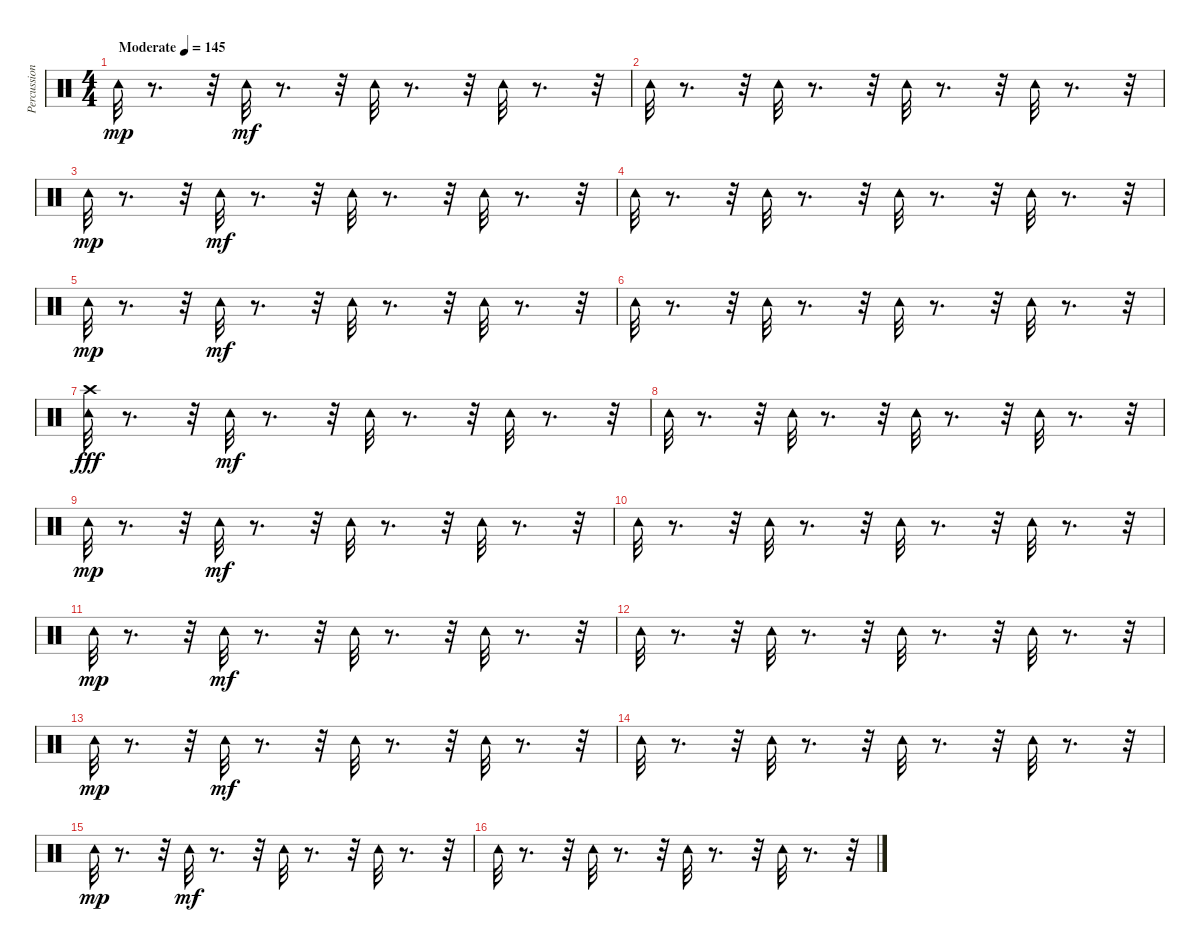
\track ("Percussion" "Percussion") {instrument percussion}
\staff {score}
\articulation defaults
\ts (4 4)
\tempo (145 "Moderate")
\clef neutral
\ks c "Tambourine (hit)".32{dy mp}
r.8{d} r.32 "Tambourine (hit)".32{dy mf} r.8{d} r.32 "Tambourine (hit)".32 r.8{d} r.32 "Tambourine (hit)".32 r.8{d} r.32 |
"Tambourine (hit)".32 r.8{d} r.32 "Tambourine (hit)".32 r.8{d} r.32 "Tambourine (hit)".32 r.8{d} r.32 "Tambourine (hit)".32 r.8{d} r.32 |
"Tambourine (hit)".32{dy mp} r.8{d} r.32 "Tambourine (hit)".32{dy mf} r.8{d} r.32 "Tambourine (hit)".32 r.8{d} r.32 "Tambourine (hit)".32 r.8{d} r.32 |
"Tambourine (hit)".32 r.8{d} r.32 "Tambourine (hit)".32 r.8{d} r.32 "Tambourine (hit)".32 r.8{d} r.32 "Tambourine (hit)".32 r.8{d} r.32 |
"Tambourine (hit)".32{dy mp} r.8{d} r.32 "Tambourine (hit)".32{dy mf} r.8{d} r.32 "Tambourine (hit)".32 r.8{d} r.32 "Tambourine (hit)".32 r.8{d} r.32 |
"Tambourine (hit)".32 r.8{d} r.32 "Tambourine (hit)".32 r.8{d} r.32 "Tambourine (hit)".32 r.8{d} r.32 "Tambourine (hit)".32 r.8{d} r.32 |
("Tambourine (hit)" "Crash high (hit)").32{dy fff} r.8{d} r.32 "Tambourine (hit)".32{dy mf} r.8{d} r.32 "Tambourine (hit)".32 r.8{d} r.32 "Tambourine (hit)".32 r.8{d} r.32 |
"Tambourine (hit)".32 r.8{d} r.32 "Tambourine (hit)".32 r.8{d} r.32 "Tambourine (hit)".32 r.8{d} r.32 "Tambourine (hit)".32 r.8{d} r.32 |
"Tambourine (hit)".32{dy mp} r.8{d} r.32 "Tambourine (hit)".32{dy mf} r.8{d} r.32 "Tambourine (hit)".32 r.8{d} r.32 "Tambourine (hit)".32 r.8{d} r.32 |
"Tambourine (hit)".32 r.8{d} r.32 "Tambourine (hit)".32 r.8{d} r.32 "Tambourine (hit)".32 r.8{d} r.32 "Tambourine (hit)".32 r.8{d} r.32 |
"Tambourine (hit)".32{dy mp} r.8{d} r.32 "Tambourine (hit)".32{dy mf} r.8{d} r.32 "Tambourine (hit)".32 r.8{d} r.32 "Tambourine (hit)".32 r.8{d} r.32 |
"Tambourine (hit)".32 r.8{d} r.32 "Tambourine (hit)".32 r.8{d} r.32 "Tambourine (hit)".32 r.8{d} r.32 "Tambourine (hit)".32 r.8{d} r.32 |
"Tambourine (hit)".32{dy mp} r.8{d} r.32 "Tambourine (hit)".32{dy mf} r.8{d} r.32 "Tambourine (hit)".32 r.8{d} r.32 "Tambourine (hit)".32 r.8{d} r.32 |
"Tambourine (hit)".32 r.8{d} r.32 "Tambourine (hit)".32 r.8{d} r.32 "Tambourine (hit)".32 r.8{d} r.32 "Tambourine (hit)".32 r.8{d} r.32 |
"Tambourine (hit)".32{dy mp} r.8{d} r.32 "Tambourine (hit)".32{dy mf} r.8{d} r.32 "Tambourine (hit)".32 r.8{d} r.32 "Tambourine (hit)".32 r.8{d} r.32 |
"Tambourine (hit)".32 r.8{d} r.32 "Tambourine (hit)".32 r.8{d} r.32 "Tambourine (hit)".32 r.8{d} r.32 "Tambourine (hit)".32 r.8{d} r.32
